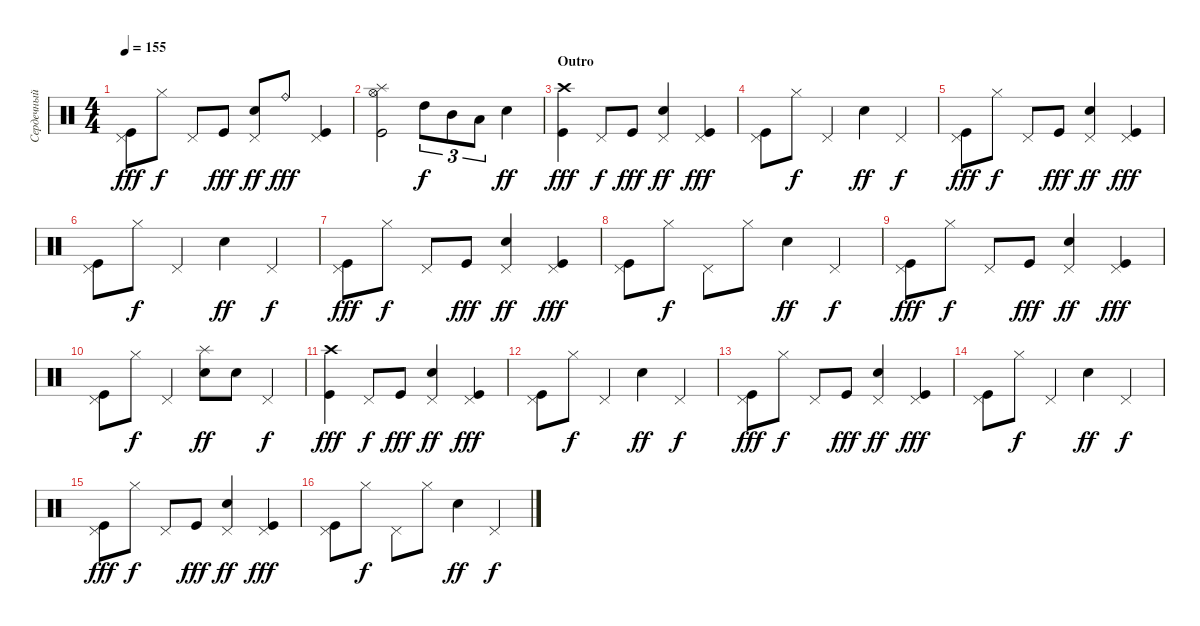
\track ("Сердечный (Ударные)" "Сердечный ") {instrument percussion}
\staff {score}
\articulation defaults
\ts (4 4)
\tempo 155
\clef neutral
\ks c
("Kick (hit)" "Pedal Hi-Hat (hit)").8{dy fff} "Hi-Hat (closed)".8{dy f} "Pedal Hi-Hat (hit)".8 "Kick (hit)".8{dy fff} ("Electric Snare (hit)" "Pedal Hi-Hat (hit)").8{dy ff} "Ride (bell)".8{dy fff} ("Kick (hit)" "Pedal Hi-Hat (hit)").4 |
("Hi-Hat (open)" "Splash (hit)" "Kick (hit)").2 "High Tom (hit)".8{tu (3 2) dy f} "Mid Tom (hit)".8{tu (3 2)} "Low Tom (hit)".8{tu (3 2)} "Electric Snare (hit)".4{dy ff} |
\section ("" "Outro")
("Crash high (hit)" "Kick (hit)").4{dy fff} "Pedal Hi-Hat (hit)".8{dy f} "Kick (hit)".8{dy fff} ("Electric Snare (hit)" "Pedal Hi-Hat (hit)").4{dy ff} ("Kick (hit)" "Pedal Hi-Hat (hit)").4{dy fff} |
("Kick (hit)" "Pedal Hi-Hat (hit)").8 "Hi-Hat (closed)".8{dy f} "Pedal Hi-Hat (hit)".4 "Electric Snare (hit)".4{dy ff} "Pedal Hi-Hat (hit)".4{dy f} |
("Pedal Hi-Hat (hit)" "Kick (hit)").8{dy fff} "Hi-Hat (closed)".8{dy f} "Pedal Hi-Hat (hit)".8 "Kick (hit)".8{dy fff} ("Pedal Hi-Hat (hit)" "Electric Snare (hit)").4{dy ff} ("Pedal Hi-Hat (hit)" "Kick (hit)").4{dy fff} |
("Kick (hit)" "Pedal Hi-Hat (hit)").8 "Hi-Hat (closed)".8{dy f} "Pedal Hi-Hat (hit)".4 "Electric Snare (hit)".4{dy ff} "Pedal Hi-Hat (hit)".4{dy f} |
("Kick (hit)" "Pedal Hi-Hat (hit)").8{dy fff} "Hi-Hat (closed)".8{dy f} "Pedal Hi-Hat (hit)".8 "Kick (hit)".8{dy fff} ("Electric Snare (hit)" "Pedal Hi-Hat (hit)").4{dy ff} ("Pedal Hi-Hat (hit)" "Kick (hit)").4{dy fff} |
("Kick (hit)" "Pedal Hi-Hat (hit)").8 "Hi-Hat (closed)".8{dy f} "Pedal Hi-Hat (hit)".8 "Hi-Hat (closed)".8 "Electric Snare (hit)".4{dy ff} "Pedal Hi-Hat (hit)".4{dy f} |
("Kick (hit)" "Pedal Hi-Hat (hit)").8{dy fff} "Hi-Hat (closed)".8{dy f} "Pedal Hi-Hat (hit)".8 "Kick (hit)".8{dy fff} ("Electric Snare (hit)" "Pedal Hi-Hat (hit)").4{dy ff} ("Pedal Hi-Hat (hit)" "Kick (hit)").4{dy fff} |
("Kick (hit)" "Pedal Hi-Hat (hit)").8 "Hi-Hat (closed)".8{dy f} "Pedal Hi-Hat (hit)".4 ("Splash (hit)" "Electric Snare (hit)").8{dy ff} "Electric Snare (hit)".8 "Pedal Hi-Hat (hit)".4{dy f} |
("Kick (hit)" "Crash high (hit)").4{dy fff} "Pedal Hi-Hat (hit)".8{dy f} "Kick (hit)".8{dy fff} ("Electric Snare (hit)" "Pedal Hi-Hat (hit)").4{dy ff} ("Pedal Hi-Hat (hit)" "Kick (hit)").4{dy fff} |
("Pedal Hi-Hat (hit)" "Kick (hit)").8 "Hi-Hat (closed)".8{dy f} "Pedal Hi-Hat (hit)".4 "Electric Snare (hit)".4{dy ff} "Pedal Hi-Hat (hit)".4{dy f} |
("Pedal Hi-Hat (hit)" "Kick (hit)").8{dy fff} "Hi-Hat (closed)".8{dy f} "Pedal Hi-Hat (hit)".8 "Kick (hit)".8{dy fff} ("Electric Snare (hit)" "Pedal Hi-Hat (hit)").4{dy ff} ("Pedal Hi-Hat (hit)" "Kick (hit)").4{dy fff} |
("Kick (hit)" "Pedal Hi-Hat (hit)").8 "Hi-Hat (closed)".8{dy f} "Pedal Hi-Hat (hit)".4 "Electric Snare (hit)".4{dy ff} "Pedal Hi-Hat (hit)".4{dy f} |
("Pedal Hi-Hat (hit)" "Kick (hit)").8{dy fff} "Hi-Hat (closed)".8{dy f} "Pedal Hi-Hat (hit)".8 "Kick (hit)".8{dy fff} ("Pedal Hi-Hat (hit)" "Electric Snare (hit)").4{dy ff} ("Pedal Hi-Hat (hit)" "Kick (hit)").4{dy fff} |
("Pedal Hi-Hat (hit)" "Kick (hit)").8 "Hi-Hat (closed)".8{dy f} "Pedal Hi-Hat (hit)".8 "Hi-Hat (closed)".8 "Electric Snare (hit)".4{dy ff} "Pedal Hi-Hat (hit)".4{dy f}
